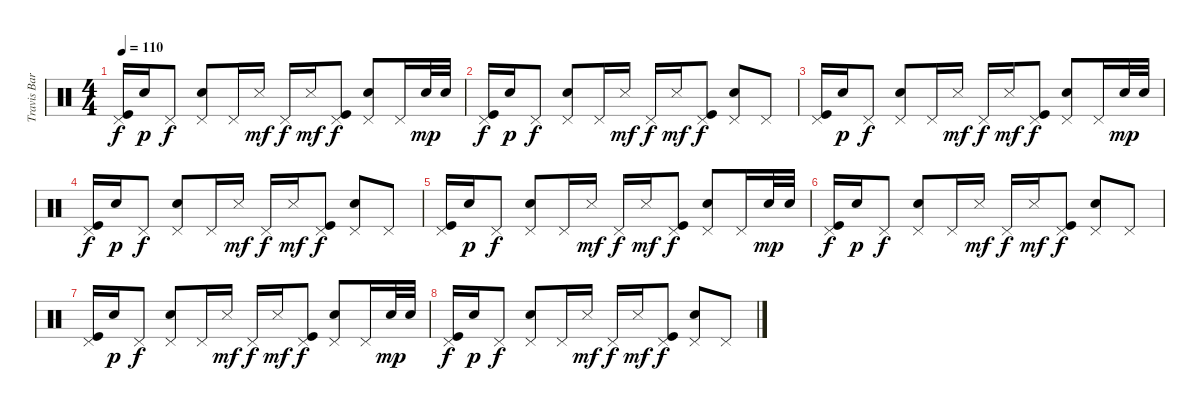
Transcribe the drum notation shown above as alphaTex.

\track ("Travis Barker Drums" "Travis Bar") {instrument percussion}
\staff {score}
\articulation defaults
\ts (4 4)
\tempo 110
\clef neutral
\ks c
("Pedal Hi-Hat (hit)" "Kick (hit)").16{dy f} "Snare (hit) 2".16{dy p} "Pedal Hi-Hat (hit)".8{dy f} ("Pedal Hi-Hat (hit)" "Snare (hit) 2").8 "Pedal Hi-Hat (hit)".16 "Snare (side stick) 3".16{dy mf} "Pedal Hi-Hat (hit)".16{dy f} "Snare (side stick) 3".16{dy mf} ("Pedal Hi-Hat (hit)" "Kick (hit)").8{dy f} ("Pedal Hi-Hat (hit)" "Snare (hit) 2").8 "Pedal Hi-Hat (hit)".16 "Snare (hit) 2".32{dy mp} "Snare (hit) 2".32 |
("Pedal Hi-Hat (hit)" "Kick (hit)").16{dy f} "Snare (hit) 2".16{dy p} "Pedal Hi-Hat (hit)".8{dy f} ("Pedal Hi-Hat (hit)" "Snare (hit) 2").8 "Pedal Hi-Hat (hit)".16 "Snare (side stick) 3".16{dy mf} "Pedal Hi-Hat (hit)".16{dy f} "Snare (side stick) 3".16{dy mf} ("Pedal Hi-Hat (hit)" "Kick (hit)").8{dy f} ("Pedal Hi-Hat (hit)" "Snare (hit) 2").8 "Pedal Hi-Hat (hit)".8 |
("Pedal Hi-Hat (hit)" "Kick (hit)").16 "Snare (hit) 2".16{dy p} "Pedal Hi-Hat (hit)".8{dy f} ("Pedal Hi-Hat (hit)" "Snare (hit) 2").8 "Pedal Hi-Hat (hit)".16 "Snare (side stick) 3".16{dy mf} "Pedal Hi-Hat (hit)".16{dy f} "Snare (side stick) 3".16{dy mf} ("Pedal Hi-Hat (hit)" "Kick (hit)").8{dy f} ("Pedal Hi-Hat (hit)" "Snare (hit) 2").8 "Pedal Hi-Hat (hit)".16 "Snare (hit) 2".32{dy mp} "Snare (hit) 2".32 |
("Pedal Hi-Hat (hit)" "Kick (hit)").16{dy f} "Snare (hit) 2".16{dy p} "Pedal Hi-Hat (hit)".8{dy f} ("Pedal Hi-Hat (hit)" "Snare (hit) 2").8 "Pedal Hi-Hat (hit)".16 "Snare (side stick) 3".16{dy mf} "Pedal Hi-Hat (hit)".16{dy f} "Snare (side stick) 3".16{dy mf} ("Pedal Hi-Hat (hit)" "Kick (hit)").8{dy f} ("Pedal Hi-Hat (hit)" "Snare (hit) 2").8 "Pedal Hi-Hat (hit)".8 |
("Pedal Hi-Hat (hit)" "Kick (hit)").16 "Snare (hit) 2".16{dy p} "Pedal Hi-Hat (hit)".8{dy f} ("Pedal Hi-Hat (hit)" "Snare (hit) 2").8 "Pedal Hi-Hat (hit)".16 "Snare (side stick) 3".16{dy mf} "Pedal Hi-Hat (hit)".16{dy f} "Snare (side stick) 3".16{dy mf} ("Pedal Hi-Hat (hit)" "Kick (hit)").8{dy f} ("Pedal Hi-Hat (hit)" "Snare (hit) 2").8 "Pedal Hi-Hat (hit)".16 "Snare (hit) 2".32{dy mp} "Snare (hit) 2".32 |
("Pedal Hi-Hat (hit)" "Kick (hit)").16{dy f} "Snare (hit) 2".16{dy p} "Pedal Hi-Hat (hit)".8{dy f} ("Pedal Hi-Hat (hit)" "Snare (hit) 2").8 "Pedal Hi-Hat (hit)".16 "Snare (side stick) 3".16{dy mf} "Pedal Hi-Hat (hit)".16{dy f} "Snare (side stick) 3".16{dy mf} ("Pedal Hi-Hat (hit)" "Kick (hit)").8{dy f} ("Pedal Hi-Hat (hit)" "Snare (hit) 2").8 "Pedal Hi-Hat (hit)".8 |
("Pedal Hi-Hat (hit)" "Kick (hit)").16 "Snare (hit) 2".16{dy p} "Pedal Hi-Hat (hit)".8{dy f} ("Pedal Hi-Hat (hit)" "Snare (hit) 2").8 "Pedal Hi-Hat (hit)".16 "Snare (side stick) 3".16{dy mf} "Pedal Hi-Hat (hit)".16{dy f} "Snare (side stick) 3".16{dy mf} ("Pedal Hi-Hat (hit)" "Kick (hit)").8{dy f} ("Pedal Hi-Hat (hit)" "Snare (hit) 2").8 "Pedal Hi-Hat (hit)".16 "Snare (hit) 2".32{dy mp} "Snare (hit) 2".32 |
("Pedal Hi-Hat (hit)" "Kick (hit)").16{dy f} "Snare (hit) 2".16{dy p} "Pedal Hi-Hat (hit)".8{dy f} ("Pedal Hi-Hat (hit)" "Snare (hit) 2").8 "Pedal Hi-Hat (hit)".16 "Snare (side stick) 3".16{dy mf} "Pedal Hi-Hat (hit)".16{dy f} "Snare (side stick) 3".16{dy mf} ("Pedal Hi-Hat (hit)" "Kick (hit)").8{dy f} ("Pedal Hi-Hat (hit)" "Snare (hit) 2").8 "Pedal Hi-Hat (hit)".8
